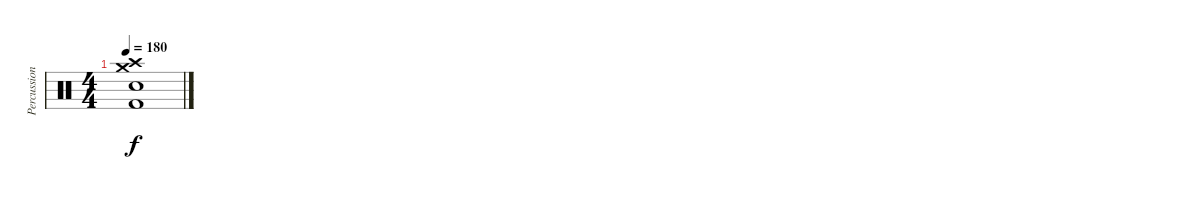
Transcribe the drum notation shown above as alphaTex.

\track ("Percussion" "Percussion") {instrument percussion}
\staff {score}
\articulation defaults
\ts (4 4)
\tempo 180
\clef neutral
\ks c
("Kick (hit) 2" "Snare (hit) 2" "Crash medium (hit)" "Crash high (hit)").1{dy f}
